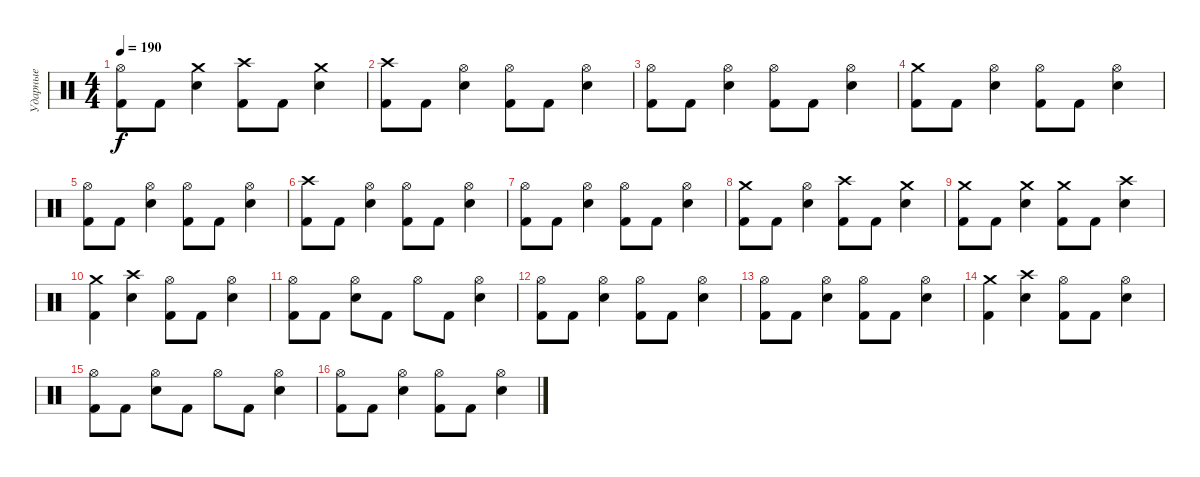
\track ("Ударные" "Ударные") {instrument percussion}
\staff {score}
\articulation defaults
\ts (4 4)
\tempo 190
\clef neutral
\ks c
("Hi-Hat (open)" "Kick (hit) 2").8{dy f} "Kick (hit) 2".8 ("Crash medium (hit)" "Snare (hit) 2").4 ("Crash high (hit)" "Kick (hit) 2").8 "Kick (hit) 2".8 ("Crash medium (hit)" "Snare (hit) 2").4 |
("Crash high (hit)" "Kick (hit) 2").8 "Kick (hit) 2".8 ("Hi-Hat (open)" "Snare (hit) 2").4 ("Hi-Hat (open)" "Kick (hit) 2").8 "Kick (hit) 2".8 ("Hi-Hat (open)" "Snare (hit) 2").4 |
("Hi-Hat (open)" "Kick (hit) 2").8 "Kick (hit) 2".8 ("Hi-Hat (open)" "Snare (hit) 2").4 ("Hi-Hat (open)" "Kick (hit) 2").8 "Kick (hit) 2".8 ("Hi-Hat (open)" "Snare (hit) 2").4 |
("Crash medium (hit)" "Kick (hit) 2").8 "Kick (hit) 2".8 ("Hi-Hat (open)" "Snare (hit) 2").4 ("Hi-Hat (open)" "Kick (hit) 2").8 "Kick (hit) 2".8 ("Hi-Hat (open)" "Snare (hit) 2").4 |
("Hi-Hat (open)" "Kick (hit) 2").8 "Kick (hit) 2".8 ("Hi-Hat (open)" "Snare (hit) 2").4 ("Hi-Hat (open)" "Kick (hit) 2").8 "Kick (hit) 2".8 ("Hi-Hat (open)" "Snare (hit) 2").4 |
("Crash high (hit)" "Kick (hit) 2").8 "Kick (hit) 2".8 ("Hi-Hat (open)" "Snare (hit) 2").4 ("Hi-Hat (open)" "Kick (hit) 2").8 "Kick (hit) 2".8 ("Hi-Hat (open)" "Snare (hit) 2").4 |
("Hi-Hat (open)" "Kick (hit) 2").8 "Kick (hit) 2".8 ("Hi-Hat (open)" "Snare (hit) 2").4 ("Hi-Hat (open)" "Kick (hit) 2").8 "Kick (hit) 2".8 ("Hi-Hat (open)" "Snare (hit) 2").4 |
("Crash medium (hit)" "Kick (hit) 2").8 "Kick (hit) 2".8 ("Hi-Hat (open)" "Snare (hit) 2").4 ("Crash high (hit)" "Kick (hit) 2").8 "Kick (hit) 2".8 ("Crash medium (hit)" "Snare (hit) 2").4 |
("Crash medium (hit)" "Kick (hit) 2").8 "Kick (hit) 2".8 ("Crash medium (hit)" "Snare (hit) 2").4 ("Crash medium (hit)" "Kick (hit) 2").8 "Kick (hit) 2".8 ("Crash high (hit)" "Snare (hit) 2").4 |
("Crash medium (hit)" "Kick (hit) 2").4 ("Crash high (hit)" "Snare (hit) 2").4 ("Hi-Hat (open)" "Kick (hit) 2").8 "Kick (hit) 2".8 ("Hi-Hat (open)" "Snare (hit) 2").4 |
("Hi-Hat (open)" "Kick (hit) 2").8 "Kick (hit) 2".8 ("Hi-Hat (open)" "Snare (hit) 2").8 "Kick (hit) 2".8 "Hi-Hat (open)".8 "Kick (hit) 2".8 ("Hi-Hat (open)" "Snare (hit) 2").4 |
("Hi-Hat (open)" "Kick (hit) 2").8 "Kick (hit) 2".8 ("Hi-Hat (open)" "Snare (hit) 2").4 ("Hi-Hat (open)" "Kick (hit) 2").8 "Kick (hit) 2".8 ("Hi-Hat (open)" "Snare (hit) 2").4 |
("Hi-Hat (open)" "Kick (hit) 2").8 "Kick (hit) 2".8 ("Hi-Hat (open)" "Snare (hit) 2").4 ("Hi-Hat (open)" "Kick (hit) 2").8 "Kick (hit) 2".8 ("Hi-Hat (open)" "Snare (hit) 2").4 |
("Crash medium (hit)" "Kick (hit) 2").4 ("Crash high (hit)" "Snare (hit) 2").4 ("Hi-Hat (open)" "Kick (hit) 2").8 "Kick (hit) 2".8 ("Hi-Hat (open)" "Snare (hit) 2").4 |
("Hi-Hat (open)" "Kick (hit) 2").8 "Kick (hit) 2".8 ("Hi-Hat (open)" "Snare (hit) 2").8 "Kick (hit) 2".8 "Hi-Hat (open)".8 "Kick (hit) 2".8 ("Hi-Hat (open)" "Snare (hit) 2").4 |
("Hi-Hat (open)" "Kick (hit) 2").8 "Kick (hit) 2".8 ("Hi-Hat (open)" "Snare (hit) 2").4 ("Hi-Hat (open)" "Kick (hit) 2").8 "Kick (hit) 2".8 ("Hi-Hat (open)" "Snare (hit) 2").4
